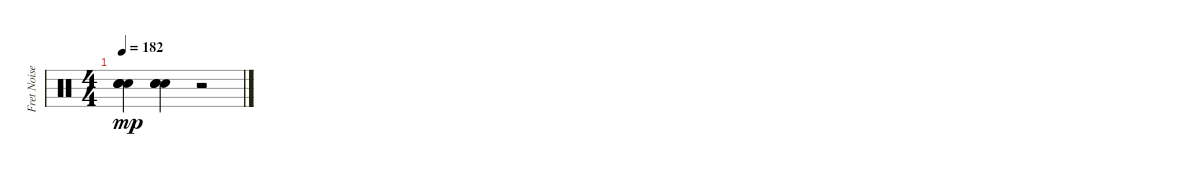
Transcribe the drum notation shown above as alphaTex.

\track ("Fret Noise / Percussion(corpus)" "Fret Noise") {instrument percussion}
\staff {score}
\articulation defaults
\ts (4 4)
\tempo 182
\clef neutral
\ks c
("Snare (hit) 2" "Snare (hit) 2" "Snare (hit) 2" "Snare (hit) 2").4{dy mp} ("Snare (hit) 2" "Snare (hit) 2" "Snare (hit) 2" "Snare (hit) 2").4 r.2
